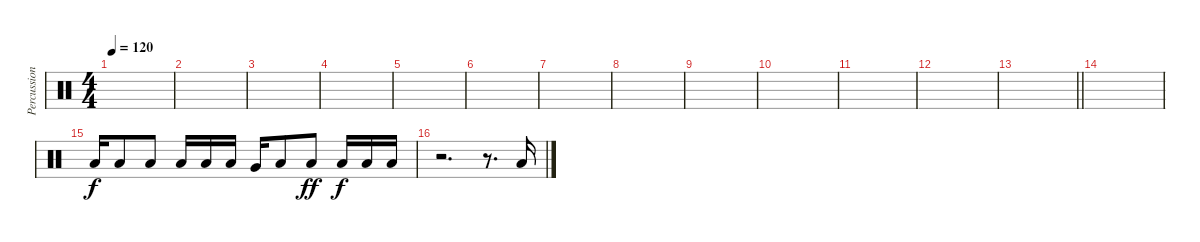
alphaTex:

\track ("Percussion" "Percussion") {instrument percussion}
\staff {score}
\articulation defaults
\ts (4 4)
\tempo 120
\clef neutral
\ks c
|
|
|
|
|
|
|
|
|
|
|
|
\barLineRight lightlight
|
\section ("" "")
|
"Low Tom (hit)".16{dy f} "Low Tom (hit)".8 "Low Tom (hit)".8 "Low Tom (hit)".16 "Low Tom (hit)".16 "Low Tom (hit)".16 "Very Low Tom (hit)".16 "Low Tom (hit)".8 "Low Tom (hit)".8{dy ff} "Low Tom (hit)".16{dy f} "Low Tom (hit)".16 "Low Tom (hit)".16 |
r.2{d} r.8{d} "Low Floor Tom (hit)".16
